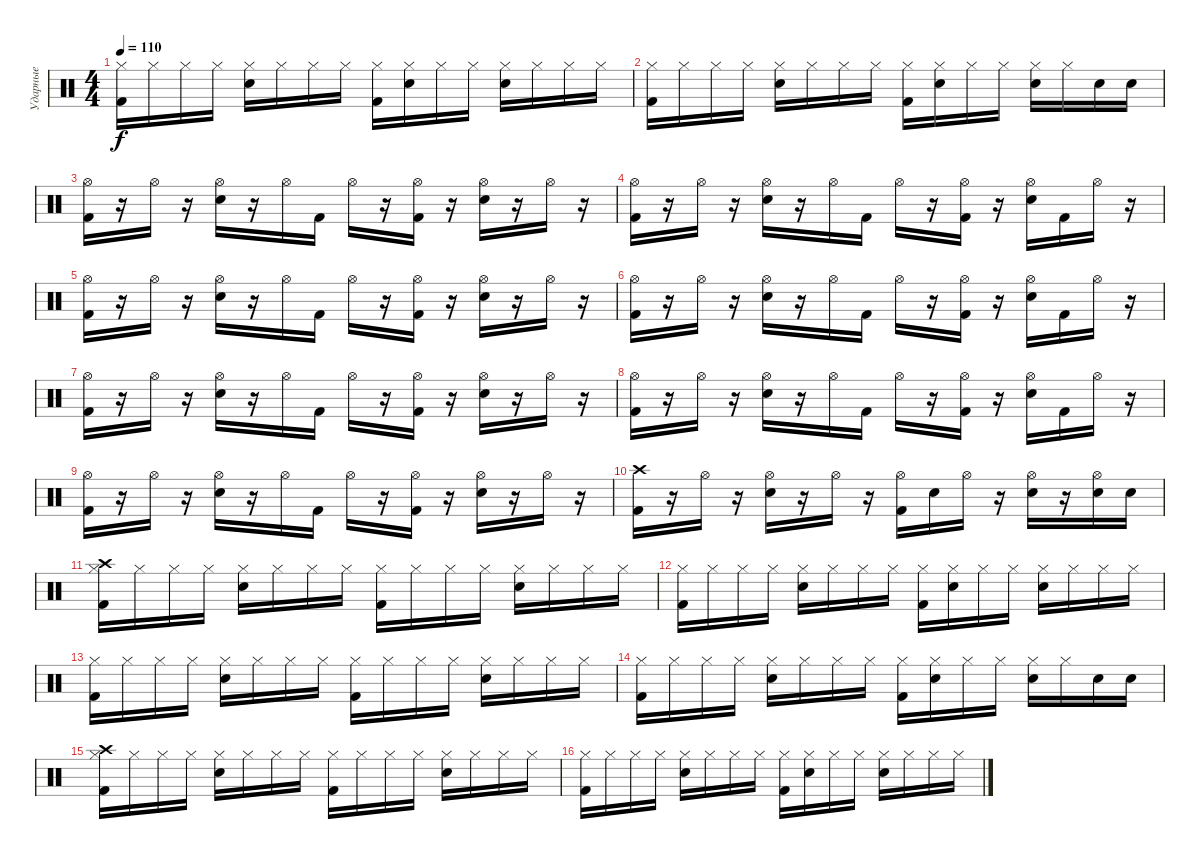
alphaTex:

\track ("Ударные" "Ударные") {instrument percussion}
\staff {score}
\articulation defaults
\ts (4 4)
\tempo 110
\clef neutral
\ks c
("Hi-Hat (closed)" "Kick (hit) 2").16{dy f} "Hi-Hat (closed)".16 "Hi-Hat (closed)".16 "Hi-Hat (closed)".16 ("Hi-Hat (closed)" "Snare (hit) 2").16 "Hi-Hat (closed)".16 "Hi-Hat (closed)".16 "Hi-Hat (closed)".16 ("Hi-Hat (closed)" "Kick (hit) 2").16 ("Hi-Hat (closed)" "Snare (hit) 2").16 "Hi-Hat (closed)".16 "Hi-Hat (closed)".16 ("Hi-Hat (closed)" "Snare (hit) 2").16 "Hi-Hat (closed)".16 "Hi-Hat (closed)".16 "Hi-Hat (closed)".16 |
("Hi-Hat (closed)" "Kick (hit) 2").16 "Hi-Hat (closed)".16 "Hi-Hat (closed)".16 "Hi-Hat (closed)".16 ("Hi-Hat (closed)" "Snare (hit) 2").16 "Hi-Hat (closed)".16 "Hi-Hat (closed)".16 "Hi-Hat (closed)".16 ("Hi-Hat (closed)" "Kick (hit) 2").16 ("Hi-Hat (closed)" "Snare (hit) 2").16 "Hi-Hat (closed)".16 "Hi-Hat (closed)".16 ("Hi-Hat (closed)" "Snare (hit) 2").16 "Hi-Hat (closed)".16 "Snare (hit) 2".16 "Snare (hit) 2".16 |
("Hi-Hat (open)" "Kick (hit) 2").16 r.16 "Hi-Hat (open)".16 r.16 ("Hi-Hat (open)" "Snare (hit) 2").16 r.16 "Hi-Hat (open)".16 "Kick (hit) 2".16 "Hi-Hat (open)".16 r.16 ("Hi-Hat (open)" "Kick (hit) 2").16 r.16 ("Hi-Hat (open)" "Snare (hit) 2").16 r.16 "Hi-Hat (open)".16 r.16 |
("Hi-Hat (open)" "Kick (hit) 2").16 r.16 "Hi-Hat (open)".16 r.16 ("Hi-Hat (open)" "Snare (hit) 2").16 r.16 "Hi-Hat (open)".16 "Kick (hit) 2".16 "Hi-Hat (open)".16 r.16 ("Hi-Hat (open)" "Kick (hit) 2").16 r.16 ("Hi-Hat (open)" "Snare (hit) 2").16 "Kick (hit) 2".16 "Hi-Hat (open)".16 r.16 |
("Hi-Hat (open)" "Kick (hit) 2").16 r.16 "Hi-Hat (open)".16 r.16 ("Hi-Hat (open)" "Snare (hit) 2").16 r.16 "Hi-Hat (open)".16 "Kick (hit) 2".16 "Hi-Hat (open)".16 r.16 ("Hi-Hat (open)" "Kick (hit) 2").16 r.16 ("Hi-Hat (open)" "Snare (hit) 2").16 r.16 "Hi-Hat (open)".16 r.16 |
("Hi-Hat (open)" "Kick (hit) 2").16 r.16 "Hi-Hat (open)".16 r.16 ("Hi-Hat (open)" "Snare (hit) 2").16 r.16 "Hi-Hat (open)".16 "Kick (hit) 2".16 "Hi-Hat (open)".16 r.16 ("Hi-Hat (open)" "Kick (hit) 2").16 r.16 ("Hi-Hat (open)" "Snare (hit) 2").16 "Kick (hit) 2".16 "Hi-Hat (open)".16 r.16 |
("Hi-Hat (open)" "Kick (hit) 2").16 r.16 "Hi-Hat (open)".16 r.16 ("Hi-Hat (open)" "Snare (hit) 2").16 r.16 "Hi-Hat (open)".16 "Kick (hit) 2".16 "Hi-Hat (open)".16 r.16 ("Hi-Hat (open)" "Kick (hit) 2").16 r.16 ("Hi-Hat (open)" "Snare (hit) 2").16 r.16 "Hi-Hat (open)".16 r.16 |
("Hi-Hat (open)" "Kick (hit) 2").16 r.16 "Hi-Hat (open)".16 r.16 ("Hi-Hat (open)" "Snare (hit) 2").16 r.16 "Hi-Hat (open)".16 "Kick (hit) 2".16 "Hi-Hat (open)".16 r.16 ("Hi-Hat (open)" "Kick (hit) 2").16 r.16 ("Hi-Hat (open)" "Snare (hit) 2").16 "Kick (hit) 2".16 "Hi-Hat (open)".16 r.16 |
("Hi-Hat (open)" "Kick (hit) 2").16 r.16 "Hi-Hat (open)".16 r.16 ("Hi-Hat (open)" "Snare (hit) 2").16 r.16 "Hi-Hat (open)".16 "Kick (hit) 2".16 "Hi-Hat (open)".16 r.16 ("Hi-Hat (open)" "Kick (hit) 2").16 r.16 ("Hi-Hat (open)" "Snare (hit) 2").16 r.16 "Hi-Hat (open)".16 r.16 |
("Crash high (hit)" "Kick (hit) 2").16 r.16 "Hi-Hat (open)".16 r.16 ("Hi-Hat (open)" "Snare (hit) 2").16 r.16 "Hi-Hat (open)".16 r.16 ("Hi-Hat (open)" "Kick (hit) 2").16 "Snare (hit) 2".16 "Hi-Hat (open)".16 r.16 ("Hi-Hat (open)" "Snare (hit) 2").16 r.16 ("Hi-Hat (open)" "Snare (hit) 2").16 "Snare (hit) 2".16 |
("Crash high (hit)" "Hi-Hat (closed)" "Kick (hit) 2").16 "Hi-Hat (closed)".16 "Hi-Hat (closed)".16 "Hi-Hat (closed)".16 ("Hi-Hat (closed)" "Snare (hit) 2").16 "Hi-Hat (closed)".16 "Hi-Hat (closed)".16 "Hi-Hat (closed)".16 ("Hi-Hat (closed)" "Kick (hit) 2").16 "Hi-Hat (closed)".16 "Hi-Hat (closed)".16 "Hi-Hat (closed)".16 ("Hi-Hat (closed)" "Snare (hit) 2").16 "Hi-Hat (closed)".16 "Hi-Hat (closed)".16 "Hi-Hat (closed)".16 |
("Hi-Hat (closed)" "Kick (hit) 2").16 "Hi-Hat (closed)".16 "Hi-Hat (closed)".16 "Hi-Hat (closed)".16 ("Hi-Hat (closed)" "Snare (hit) 2").16 "Hi-Hat (closed)".16 "Hi-Hat (closed)".16 "Hi-Hat (closed)".16 ("Hi-Hat (closed)" "Kick (hit) 2").16 ("Hi-Hat (closed)" "Snare (hit) 2").16 "Hi-Hat (closed)".16 "Hi-Hat (closed)".16 ("Hi-Hat (closed)" "Snare (hit) 2").16 "Hi-Hat (closed)".16 "Hi-Hat (closed)".16 "Hi-Hat (closed)".16 |
("Hi-Hat (closed)" "Kick (hit) 2").16 "Hi-Hat (closed)".16 "Hi-Hat (closed)".16 "Hi-Hat (closed)".16 ("Hi-Hat (closed)" "Snare (hit) 2").16 "Hi-Hat (closed)".16 "Hi-Hat (closed)".16 "Hi-Hat (closed)".16 ("Hi-Hat (closed)" "Kick (hit) 2").16 "Hi-Hat (closed)".16 "Hi-Hat (closed)".16 "Hi-Hat (closed)".16 ("Hi-Hat (closed)" "Snare (hit) 2").16 "Hi-Hat (closed)".16 "Hi-Hat (closed)".16 "Hi-Hat (closed)".16 |
("Hi-Hat (closed)" "Kick (hit) 2").16 "Hi-Hat (closed)".16 "Hi-Hat (closed)".16 "Hi-Hat (closed)".16 ("Hi-Hat (closed)" "Snare (hit) 2").16 "Hi-Hat (closed)".16 "Hi-Hat (closed)".16 "Hi-Hat (closed)".16 ("Hi-Hat (closed)" "Kick (hit) 2").16 ("Hi-Hat (closed)" "Snare (hit) 2").16 "Hi-Hat (closed)".16 "Hi-Hat (closed)".16 ("Hi-Hat (closed)" "Snare (hit) 2").16 "Hi-Hat (closed)".16 "Snare (hit) 2".16 "Snare (hit) 2".16 |
("Crash high (hit)" "Hi-Hat (closed)" "Kick (hit) 2").16 "Hi-Hat (closed)".16 "Hi-Hat (closed)".16 "Hi-Hat (closed)".16 ("Hi-Hat (closed)" "Snare (hit) 2").16 "Hi-Hat (closed)".16 "Hi-Hat (closed)".16 "Hi-Hat (closed)".16 ("Hi-Hat (closed)" "Kick (hit) 2").16 "Hi-Hat (closed)".16 "Hi-Hat (closed)".16 "Hi-Hat (closed)".16 ("Hi-Hat (closed)" "Snare (hit) 2").16 "Hi-Hat (closed)".16 "Hi-Hat (closed)".16 "Hi-Hat (closed)".16 |
("Hi-Hat (closed)" "Kick (hit) 2").16 "Hi-Hat (closed)".16 "Hi-Hat (closed)".16 "Hi-Hat (closed)".16 ("Hi-Hat (closed)" "Snare (hit) 2").16 "Hi-Hat (closed)".16 "Hi-Hat (closed)".16 "Hi-Hat (closed)".16 ("Hi-Hat (closed)" "Kick (hit) 2").16 ("Hi-Hat (closed)" "Snare (hit) 2").16 "Hi-Hat (closed)".16 "Hi-Hat (closed)".16 ("Hi-Hat (closed)" "Snare (hit) 2").16 "Hi-Hat (closed)".16 "Hi-Hat (closed)".16 "Hi-Hat (closed)".16
